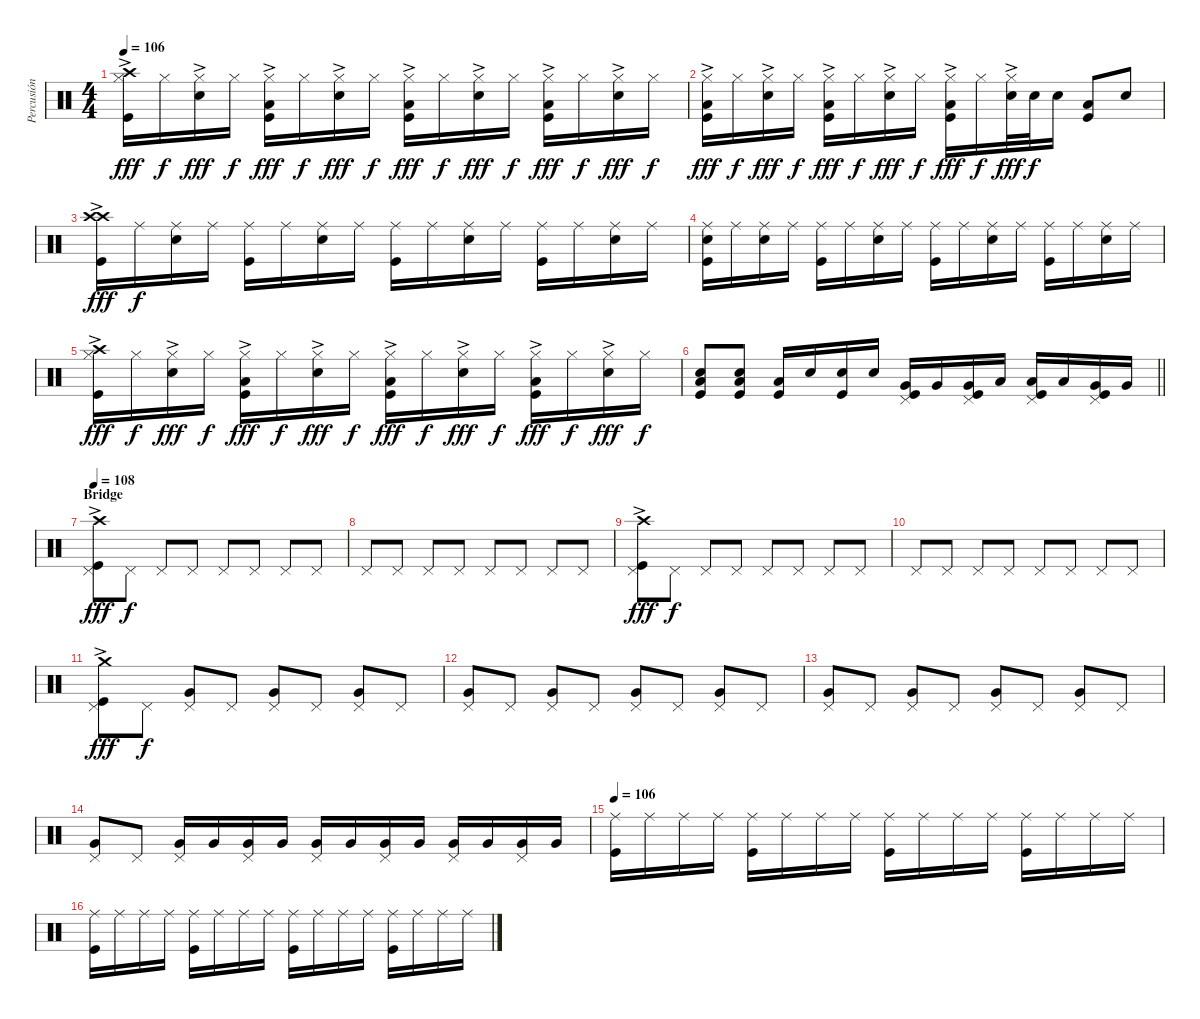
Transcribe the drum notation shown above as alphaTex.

\track ("Percusión" "Percusión") {instrument percussion}
\staff {score}
\articulation defaults
\ts (4 4)
\tempo 106
\clef neutral
\ks c
("Crash high (hit)"{ac} "Hi-Hat (closed)"{ac} "Kick (hit)").16{dy fff} "Hi-Hat (closed)".16{dy f} ("Hi-Hat (closed)"{ac} "Snare (hit) 2").16{dy fff} "Hi-Hat (closed)".16{dy f} ("Low Tom (hit)" "Hi-Hat (closed)"{ac} "Kick (hit)").16{dy fff} "Hi-Hat (closed)".16{dy f} ("Hi-Hat (closed)"{ac} "Snare (hit) 2").16{dy fff} "Hi-Hat (closed)".16{dy f} ("Low Tom (hit)" "Hi-Hat (closed)"{ac} "Kick (hit)").16{dy fff} "Hi-Hat (closed)".16{dy f} ("Hi-Hat (closed)"{ac} "Snare (hit) 2").16{dy fff} "Hi-Hat (closed)".16{dy f} ("Low Tom (hit)" "Hi-Hat (closed)"{ac} "Kick (hit)").16{dy fff} "Hi-Hat (closed)".16{dy f} ("Hi-Hat (closed)"{ac} "Snare (hit) 2").16{dy fff} "Hi-Hat (closed)".16{dy f} |
("Low Tom (hit)" "Hi-Hat (closed)"{ac} "Kick (hit)").16{dy fff} "Hi-Hat (closed)".16{dy f} ("Hi-Hat (closed)"{ac} "Snare (hit) 2").16{dy fff} "Hi-Hat (closed)".16{dy f} ("Low Tom (hit)" "Hi-Hat (closed)"{ac} "Kick (hit)").16{dy fff} "Hi-Hat (closed)".16{dy f} ("Hi-Hat (closed)"{ac} "Snare (hit) 2").16{dy fff} "Hi-Hat (closed)".16{dy f} ("Low Tom (hit)" "Hi-Hat (closed)"{ac} "Kick (hit)").16{dy fff} "Hi-Hat (closed)".16{dy f} ("Hi-Hat (closed)"{ac} "Snare (hit) 2").32{dy fff} "Snare (hit) 2".32{dy f} "Snare (hit) 2".16 ("Low Tom (hit)" "Kick (hit)").8 "Snare (hit) 2".8 |
("Crash high (hit)"{ac} "Crash high (hit)"{ac} "Kick (hit)").16{dy fff} "Ride (middle)".16{dy f} ("Ride (middle)" "Snare (hit) 2").16 "Ride (middle)".16 ("Ride (middle)" "Kick (hit)").16 "Ride (middle)".16 ("Ride (middle)" "Snare (hit) 2").16 "Ride (middle)".16 ("Ride (middle)" "Kick (hit)").16 "Ride (middle)".16 ("Ride (middle)" "Snare (hit) 2").16 "Ride (middle)".16 ("Ride (middle)" "Kick (hit)").16 "Ride (middle)".16 ("Ride (middle)" "Snare (hit) 2").16 "Ride (middle)".16 |
("Ride (middle)" "Snare (hit) 2" "Kick (hit)").16 "Ride (middle)".16 ("Ride (middle)" "Snare (hit) 2").16 "Ride (middle)".16 ("Ride (middle)" "Kick (hit)").16 "Ride (middle)".16 ("Ride (middle)" "Snare (hit) 2").16 "Ride (middle)".16 ("Ride (middle)" "Kick (hit)").16 "Ride (middle)".16 ("Ride (middle)" "Snare (hit) 2").16 "Ride (middle)".16 ("Ride (middle)" "Kick (hit)").16 "Ride (middle)".16 ("Ride (middle)" "Snare (hit) 2").16 "Ride (middle)".16 |
("Crash high (hit)"{ac} "Hi-Hat (closed)"{ac} "Kick (hit)").16{dy fff} "Hi-Hat (closed)".16{dy f} ("Hi-Hat (closed)"{ac} "Snare (hit) 2").16{dy fff} "Hi-Hat (closed)".16{dy f} ("Low Tom (hit)" "Hi-Hat (closed)"{ac} "Kick (hit)").16{dy fff} "Hi-Hat (closed)".16{dy f} ("Hi-Hat (closed)"{ac} "Snare (hit) 2").16{dy fff} "Hi-Hat (closed)".16{dy f} ("Low Tom (hit)" "Hi-Hat (closed)"{ac} "Kick (hit)").16{dy fff} "Hi-Hat (closed)".16{dy f} ("Hi-Hat (closed)"{ac} "Snare (hit) 2").16{dy fff} "Hi-Hat (closed)".16{dy f} ("Low Tom (hit)" "Hi-Hat (closed)"{ac} "Kick (hit)").16{dy fff} "Hi-Hat (closed)".16{dy f} ("Hi-Hat (closed)"{ac} "Snare (hit) 2").16{dy fff} "Hi-Hat (closed)".16{dy f} |
\barLineRight lightlight
("Low Tom (hit)" "Snare (hit) 2" "Kick (hit)").8 ("Low Tom (hit)" "Snare (hit) 2" "Kick (hit)").8 ("Low Tom (hit)" "Kick (hit)").16 "Snare (hit) 2".16 ("Snare (hit) 2" "Kick (hit)").16 "Snare (hit) 2".16 ("Very Low Tom (hit)" "Pedal Hi-Hat (hit)" "Kick (hit)").16 "Very Low Tom (hit)".16 ("Very Low Tom (hit)" "Pedal Hi-Hat (hit)" "Kick (hit)").16 "Low Tom (hit)".16 ("Low Tom (hit)" "Pedal Hi-Hat (hit)" "Kick (hit)").16 "Low Tom (hit)".16 ("Very Low Tom (hit)" "Pedal Hi-Hat (hit)" "Kick (hit)").16 "Very Low Tom (hit)".16 |
\section ("" "Bridge")
\tempo 108
("Crash high (hit)"{ac} "Pedal Hi-Hat (hit)" "Kick (hit)").8{dy fff} "Pedal Hi-Hat (hit)".8{dy f} "Pedal Hi-Hat (hit)".8 "Pedal Hi-Hat (hit)".8 "Pedal Hi-Hat (hit)".8 "Pedal Hi-Hat (hit)".8 "Pedal Hi-Hat (hit)".8 "Pedal Hi-Hat (hit)".8 |
"Pedal Hi-Hat (hit)".8 "Pedal Hi-Hat (hit)".8 "Pedal Hi-Hat (hit)".8 "Pedal Hi-Hat (hit)".8 "Pedal Hi-Hat (hit)".8 "Pedal Hi-Hat (hit)".8 "Pedal Hi-Hat (hit)".8 "Pedal Hi-Hat (hit)".8 |
("Crash high (hit)"{ac} "Pedal Hi-Hat (hit)" "Kick (hit)").8{dy fff} "Pedal Hi-Hat (hit)".8{dy f} "Pedal Hi-Hat (hit)".8 "Pedal Hi-Hat (hit)".8 "Pedal Hi-Hat (hit)".8 "Pedal Hi-Hat (hit)".8 "Pedal Hi-Hat (hit)".8 "Pedal Hi-Hat (hit)".8 |
"Pedal Hi-Hat (hit)".8 "Pedal Hi-Hat (hit)".8 "Pedal Hi-Hat (hit)".8 "Pedal Hi-Hat (hit)".8 "Pedal Hi-Hat (hit)".8 "Pedal Hi-Hat (hit)".8 "Pedal Hi-Hat (hit)".8 "Pedal Hi-Hat (hit)".8 |
("Crash medium (hit)"{ac} "Pedal Hi-Hat (hit)" "Kick (hit)").8{dy fff} "Pedal Hi-Hat (hit)".8{dy f} ("Very Low Tom (hit)" "Pedal Hi-Hat (hit)").8 "Pedal Hi-Hat (hit)".8 ("Very Low Tom (hit)" "Pedal Hi-Hat (hit)").8 "Pedal Hi-Hat (hit)".8 ("Very Low Tom (hit)" "Pedal Hi-Hat (hit)").8 "Pedal Hi-Hat (hit)".8 |
("Very Low Tom (hit)" "Pedal Hi-Hat (hit)").8 "Pedal Hi-Hat (hit)".8 ("Very Low Tom (hit)" "Pedal Hi-Hat (hit)").8 "Pedal Hi-Hat (hit)".8 ("Very Low Tom (hit)" "Pedal Hi-Hat (hit)").8 "Pedal Hi-Hat (hit)".8 ("Very Low Tom (hit)" "Pedal Hi-Hat (hit)").8 "Pedal Hi-Hat (hit)".8 |
("Very Low Tom (hit)" "Pedal Hi-Hat (hit)").8 "Pedal Hi-Hat (hit)".8 ("Very Low Tom (hit)" "Pedal Hi-Hat (hit)").8 "Pedal Hi-Hat (hit)".8 ("Very Low Tom (hit)" "Pedal Hi-Hat (hit)").8 "Pedal Hi-Hat (hit)".8 ("Very Low Tom (hit)" "Pedal Hi-Hat (hit)").8 "Pedal Hi-Hat (hit)".8 |
("Very Low Tom (hit)" "Pedal Hi-Hat (hit)").8 "Pedal Hi-Hat (hit)".8 ("Very Low Tom (hit)" "Pedal Hi-Hat (hit)").16 "Very Low Tom (hit)".16 ("Very Low Tom (hit)" "Pedal Hi-Hat (hit)").16 "Very Low Tom (hit)".16 ("Very Low Tom (hit)" "Pedal Hi-Hat (hit)").16 "Very Low Tom (hit)".16 ("Very Low Tom (hit)" "Pedal Hi-Hat (hit)").16 "Very Low Tom (hit)".16 ("Very Low Tom (hit)" "Pedal Hi-Hat (hit)").16 "Very Low Tom (hit)".16 ("Very Low Tom (hit)" "Pedal Hi-Hat (hit)").16 "Very Low Tom (hit)".16 |
\tempo 106
("Ride (middle)" "Kick (hit)").16 "Ride (middle)".16 "Ride (middle)".16 "Ride (middle)".16 ("Ride (middle)" "Kick (hit)").16 "Ride (middle)".16 "Ride (middle)".16 "Ride (middle)".16 ("Ride (middle)" "Kick (hit)").16 "Ride (middle)".16 "Ride (middle)".16 "Ride (middle)".16 ("Ride (middle)" "Kick (hit)").16 "Ride (middle)".16 "Ride (middle)".16 "Ride (middle)".16 |
("Ride (middle)" "Kick (hit)").16 "Ride (middle)".16 "Ride (middle)".16 "Ride (middle)".16 ("Ride (middle)" "Kick (hit)").16 "Ride (middle)".16 "Ride (middle)".16 "Ride (middle)".16 ("Ride (middle)" "Kick (hit)").16 "Ride (middle)".16 "Ride (middle)".16 "Ride (middle)".16 ("Ride (middle)" "Kick (hit)").16 "Ride (middle)".16 "Ride (middle)".16 "Ride (middle)".16
